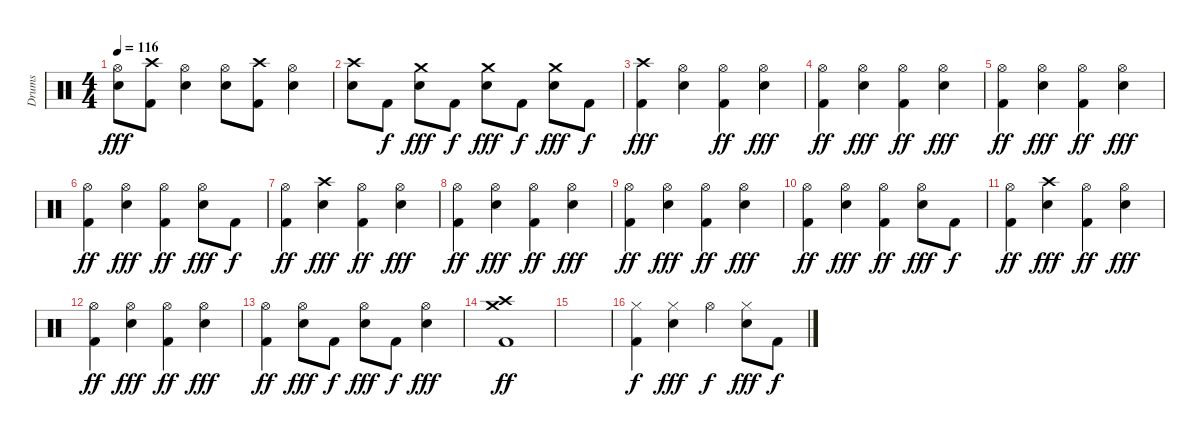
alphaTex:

\track ("Drums" "Drums") {instrument percussion}
\staff {score}
\articulation defaults
\ts (4 4)
\tempo 116
\clef neutral
\ks c
("Hi-Hat (open)" "Snare (hit) 2").8{dy fff} ("Crash high (hit)" "Kick (hit) 2").8 ("Hi-Hat (open)" "Snare (hit) 2").4 ("Hi-Hat (open)" "Snare (hit) 2").8 ("Crash high (hit)" "Kick (hit) 2").8 ("Hi-Hat (open)" "Snare (hit) 2").4 |
("Crash high (hit)" "Snare (hit) 2").8 "Kick (hit) 2".8{dy f} ("Crash medium (hit)" "Snare (hit) 2").8{dy fff} "Kick (hit) 2".8{dy f} ("Crash medium (hit)" "Snare (hit) 2").8{dy fff} "Kick (hit) 2".8{dy f} ("Crash medium (hit)" "Snare (hit) 2").8{dy fff} "Kick (hit) 2".8{dy f} |
("Crash high (hit)" "Kick (hit) 2").4{dy fff} ("Hi-Hat (open)" "Snare (hit) 2").4 ("Hi-Hat (open)" "Kick (hit) 2").4{dy ff} ("Hi-Hat (open)" "Snare (hit) 2").4{dy fff} |
("Hi-Hat (open)" "Kick (hit) 2").4{dy ff} ("Hi-Hat (open)" "Snare (hit) 2").4{dy fff} ("Hi-Hat (open)" "Kick (hit) 2").4{dy ff} ("Hi-Hat (open)" "Snare (hit) 2").4{dy fff} |
("Hi-Hat (open)" "Kick (hit) 2").4{dy ff} ("Hi-Hat (open)" "Snare (hit) 2").4{dy fff} ("Hi-Hat (open)" "Kick (hit) 2").4{dy ff} ("Hi-Hat (open)" "Snare (hit) 2").4{dy fff} |
("Hi-Hat (open)" "Kick (hit) 2").4{dy ff} ("Hi-Hat (open)" "Snare (hit) 2").4{dy fff} ("Hi-Hat (open)" "Kick (hit) 2").4{dy ff} ("Hi-Hat (open)" "Snare (hit) 2").8{dy fff} "Kick (hit) 2".8{dy f} |
("Hi-Hat (open)" "Kick (hit) 2").4{dy ff} ("Crash high (hit)" "Snare (hit) 2").4{dy fff} ("Hi-Hat (open)" "Kick (hit) 2").4{dy ff} ("Hi-Hat (open)" "Snare (hit) 2").4{dy fff} |
("Hi-Hat (open)" "Kick (hit) 2").4{dy ff} ("Hi-Hat (open)" "Snare (hit) 2").4{dy fff} ("Hi-Hat (open)" "Kick (hit) 2").4{dy ff} ("Hi-Hat (open)" "Snare (hit) 2").4{dy fff} |
("Hi-Hat (open)" "Kick (hit) 2").4{dy ff} ("Hi-Hat (open)" "Snare (hit) 2").4{dy fff} ("Hi-Hat (open)" "Kick (hit) 2").4{dy ff} ("Hi-Hat (open)" "Snare (hit) 2").4{dy fff} |
("Hi-Hat (open)" "Kick (hit) 2").4{dy ff} ("Hi-Hat (open)" "Snare (hit) 2").4{dy fff} ("Hi-Hat (open)" "Kick (hit) 2").4{dy ff} ("Hi-Hat (open)" "Snare (hit) 2").8{dy fff} "Kick (hit) 2".8{dy f} |
("Hi-Hat (open)" "Kick (hit) 2").4{dy ff} ("Crash high (hit)" "Snare (hit) 2").4{dy fff} ("Hi-Hat (open)" "Kick (hit) 2").4{dy ff} ("Hi-Hat (open)" "Snare (hit) 2").4{dy fff} |
("Hi-Hat (open)" "Kick (hit) 2").4{dy ff} ("Hi-Hat (open)" "Snare (hit) 2").4{dy fff} ("Hi-Hat (open)" "Kick (hit) 2").4{dy ff} ("Hi-Hat (open)" "Snare (hit) 2").4{dy fff} |
("Hi-Hat (open)" "Kick (hit) 2").4{dy ff} ("Hi-Hat (open)" "Snare (hit) 2").8{dy fff} "Kick (hit) 2".8{dy f} ("Hi-Hat (open)" "Snare (hit) 2").8{dy fff} "Kick (hit) 2".8{dy f} ("Hi-Hat (open)" "Snare (hit) 2").4{dy fff} |
("Crash high (hit)" "Crash medium (hit)" "Kick (hit) 2").1{dy ff} |
|
("Hi-Hat (closed)" "Kick (hit) 2").4{dy f} ("Hi-Hat (closed)" "Snare (hit) 2").4{dy fff} "Hi-Hat (open)".4{dy f} ("Hi-Hat (closed)" "Snare (hit) 2").8{dy fff} "Kick (hit) 2".8{dy f}
